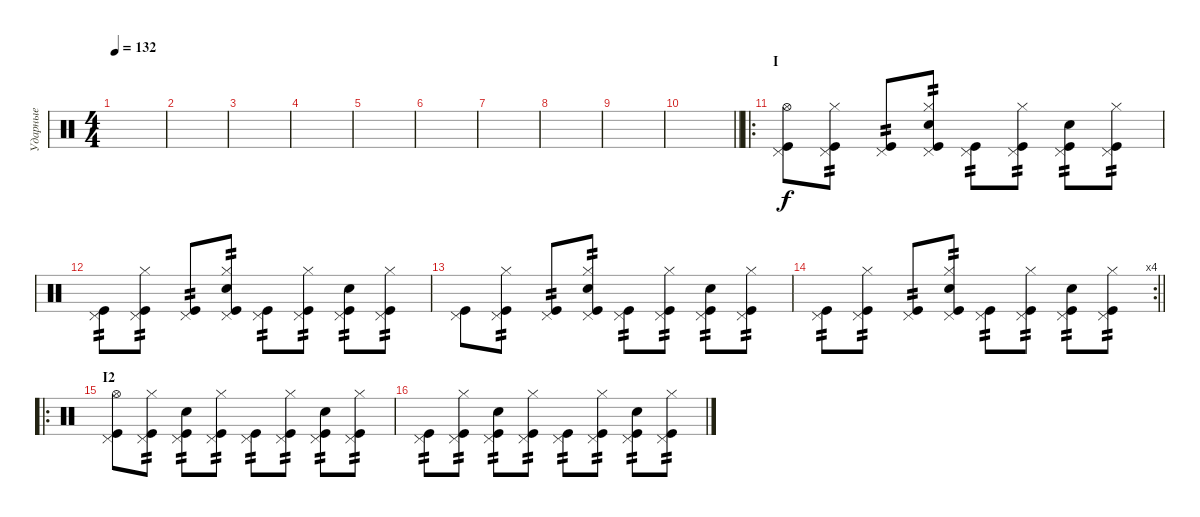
\track ("Ударные" "Ударные") {instrument percussion}
\staff {score}
\articulation defaults
\ts (4 4)
\tempo 132
\clef neutral
\ks c
|
|
|
|
|
|
|
|
|
\barLineRight lightlight
|
\ro
\section ("" "I")
("Pedal Hi-Hat (hit)" "Hi-Hat (open)" "Kick (hit)").8{dy f} ("Pedal Hi-Hat (hit)" "Hi-Hat (closed)" "Kick (hit)").8{tp 2} ("Pedal Hi-Hat (hit)" "Kick (hit)").8{tp 2} ("Pedal Hi-Hat (hit)" "Hi-Hat (closed)" "Electric Snare (hit)" "Kick (hit)").8{tp 2} ("Pedal Hi-Hat (hit)" "Kick (hit)").8{tp 2} ("Pedal Hi-Hat (hit)" "Hi-Hat (closed)" "Kick (hit)").8{tp 2} ("Pedal Hi-Hat (hit)" "Electric Snare (hit)" "Kick (hit)").8{tp 2} ("Pedal Hi-Hat (hit)" "Hi-Hat (closed)" "Kick (hit)").8{tp 2} |
("Pedal Hi-Hat (hit)" "Kick (hit)").8{tp 2} ("Pedal Hi-Hat (hit)" "Hi-Hat (closed)" "Kick (hit)").8{tp 2} ("Pedal Hi-Hat (hit)" "Kick (hit)").8{tp 2} ("Pedal Hi-Hat (hit)" "Hi-Hat (closed)" "Electric Snare (hit)" "Kick (hit)").8{tp 2} ("Pedal Hi-Hat (hit)" "Kick (hit)").8{tp 2} ("Pedal Hi-Hat (hit)" "Hi-Hat (closed)" "Kick (hit)").8{tp 2} ("Pedal Hi-Hat (hit)" "Electric Snare (hit)" "Kick (hit)").8{tp 2} ("Pedal Hi-Hat (hit)" "Hi-Hat (closed)" "Kick (hit)").8{tp 2} |
("Pedal Hi-Hat (hit)" "Kick (hit)").8 ("Pedal Hi-Hat (hit)" "Hi-Hat (closed)" "Kick (hit)").8{tp 2} ("Pedal Hi-Hat (hit)" "Kick (hit)").8{tp 2} ("Pedal Hi-Hat (hit)" "Hi-Hat (closed)" "Electric Snare (hit)" "Kick (hit)").8{tp 2} ("Pedal Hi-Hat (hit)" "Kick (hit)").8{tp 2} ("Pedal Hi-Hat (hit)" "Hi-Hat (closed)" "Kick (hit)").8{tp 2} ("Pedal Hi-Hat (hit)" "Electric Snare (hit)" "Kick (hit)").8{tp 2} ("Pedal Hi-Hat (hit)" "Hi-Hat (closed)" "Kick (hit)").8{tp 2} |
\rc 4
\barLineRight lightlight
("Pedal Hi-Hat (hit)" "Kick (hit)").8{tp 2} ("Pedal Hi-Hat (hit)" "Hi-Hat (closed)" "Kick (hit)").8{tp 2} ("Pedal Hi-Hat (hit)" "Kick (hit)").8{tp 2} ("Pedal Hi-Hat (hit)" "Hi-Hat (closed)" "Electric Snare (hit)" "Kick (hit)").8{tp 2} ("Pedal Hi-Hat (hit)" "Kick (hit)").8{tp 2} ("Pedal Hi-Hat (hit)" "Hi-Hat (closed)" "Kick (hit)").8{tp 2} ("Pedal Hi-Hat (hit)" "Electric Snare (hit)" "Kick (hit)").8{tp 2} ("Pedal Hi-Hat (hit)" "Hi-Hat (closed)" "Kick (hit)").8{tp 2} |
\ro
\section ("" "I2")
("Pedal Hi-Hat (hit)" "Hi-Hat (open)" "Kick (hit)").8 ("Pedal Hi-Hat (hit)" "Hi-Hat (closed)" "Kick (hit)").8{tp 2} ("Pedal Hi-Hat (hit)" "Electric Snare (hit)" "Kick (hit)").8{tp 2} ("Pedal Hi-Hat (hit)" "Hi-Hat (closed)" "Kick (hit)").8{tp 2} ("Pedal Hi-Hat (hit)" "Kick (hit)").8{tp 2} ("Pedal Hi-Hat (hit)" "Hi-Hat (closed)" "Kick (hit)").8{tp 2} ("Pedal Hi-Hat (hit)" "Electric Snare (hit)" "Kick (hit)").8{tp 2} ("Pedal Hi-Hat (hit)" "Hi-Hat (closed)" "Kick (hit)").8{tp 2} |
("Pedal Hi-Hat (hit)" "Kick (hit)").8{tp 2} ("Pedal Hi-Hat (hit)" "Hi-Hat (closed)" "Kick (hit)").8{tp 2} ("Pedal Hi-Hat (hit)" "Electric Snare (hit)" "Kick (hit)").8{tp 2} ("Pedal Hi-Hat (hit)" "Hi-Hat (closed)" "Kick (hit)").8{tp 2} ("Pedal Hi-Hat (hit)" "Kick (hit)").8{tp 2} ("Pedal Hi-Hat (hit)" "Hi-Hat (closed)" "Kick (hit)").8{tp 2} ("Pedal Hi-Hat (hit)" "Electric Snare (hit)" "Kick (hit)").8{tp 2} ("Pedal Hi-Hat (hit)" "Hi-Hat (closed)" "Kick (hit)").8{tp 2}
